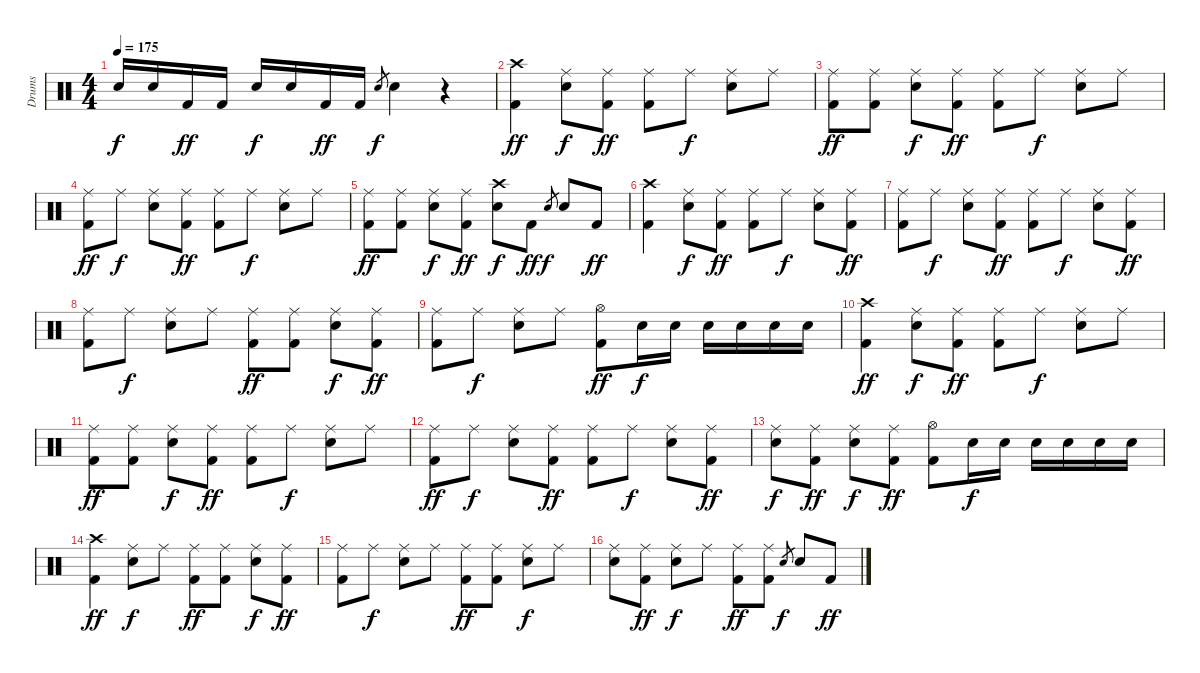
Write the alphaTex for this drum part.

\track ("Drums" "Drums") {instrument percussion}
\staff {score}
\articulation defaults
\ts (4 4)
\tempo 175
\clef neutral
\ks c "Electric Snare (hit)".16{dy f} "Electric Snare (hit)".16 "Kick (hit) 2".16{dy ff} "Kick (hit) 2".16 "Electric Snare (hit)".16{dy f} "Electric Snare (hit)".16 "Kick (hit) 2".16{dy ff} "Kick (hit) 2".16 "Electric Snare (hit)".8{gr dy f} "Electric Snare (hit)".4
r.4 |
("Crash high (hit)" "Kick (hit) 2").4{dy ff} ("Ride (middle)" "Electric Snare (hit)").8{dy f} ("Ride (middle)" "Kick (hit) 2").8{dy ff} ("Ride (middle)" "Kick (hit) 2").8 "Ride (middle)".8{dy f} ("Ride (middle)" "Electric Snare (hit)").8 "Ride (middle)".8 |
("Ride (middle)" "Kick (hit) 2").8{dy ff} ("Ride (middle)" "Kick (hit) 2").8 ("Ride (middle)" "Electric Snare (hit)").8{dy f} ("Ride (middle)" "Kick (hit) 2").8{dy ff} ("Ride (middle)" "Kick (hit) 2").8 "Ride (middle)".8{dy f} ("Ride (middle)" "Electric Snare (hit)").8 "Ride (middle)".8 |
("Ride (middle)" "Kick (hit) 2").8{dy ff} "Ride (middle)".8{dy f} ("Ride (middle)" "Electric Snare (hit)").8 ("Ride (middle)" "Kick (hit) 2").8{dy ff} ("Ride (middle)" "Kick (hit) 2").8 "Ride (middle)".8{dy f} ("Ride (middle)" "Electric Snare (hit)").8 "Ride (middle)".8 |
("Ride (middle)" "Kick (hit) 2").8{dy ff} ("Ride (middle)" "Kick (hit) 2").8 ("Ride (middle)" "Electric Snare (hit)").8{dy f} ("Ride (middle)" "Kick (hit) 2").8{dy ff} ("Crash high (hit)" "Electric Snare (hit)").8{dy f} "Kick (hit) 2".8{dy ff} "Electric Snare (hit)".8{gr dy f} "Electric Snare (hit)".8 "Kick (hit) 2".8{dy ff} |
("Crash high (hit)" "Kick (hit) 2").4 ("Ride (middle)" "Electric Snare (hit)").8{dy f} ("Ride (middle)" "Kick (hit) 2").8{dy ff} ("Ride (middle)" "Kick (hit) 2").8 "Ride (middle)".8{dy f} ("Ride (middle)" "Electric Snare (hit)").8 ("Ride (middle)" "Kick (hit) 2").8{dy ff} |
("Ride (middle)" "Kick (hit) 2").8 "Ride (middle)".8{dy f} ("Ride (middle)" "Electric Snare (hit)").8 ("Ride (middle)" "Kick (hit) 2").8{dy ff} ("Ride (middle)" "Kick (hit) 2").8 "Ride (middle)".8{dy f} ("Ride (middle)" "Electric Snare (hit)").8 ("Ride (middle)" "Kick (hit) 2").8{dy ff} |
("Ride (middle)" "Kick (hit) 2").8 "Ride (middle)".8{dy f} ("Ride (middle)" "Electric Snare (hit)").8 "Ride (middle)".8 ("Ride (middle)" "Kick (hit) 2").8{dy ff} ("Ride (middle)" "Kick (hit) 2").8 ("Ride (middle)" "Electric Snare (hit)").8{dy f} ("Ride (middle)" "Kick (hit) 2").8{dy ff} |
("Ride (middle)" "Kick (hit) 2").8 "Ride (middle)".8{dy f} ("Ride (middle)" "Electric Snare (hit)").8 "Ride (middle)".8 ("Hi-Hat (open)" "Kick (hit) 2").8{dy ff} "Electric Snare (hit)".16{dy f} "Electric Snare (hit)".16 "Electric Snare (hit)".16 "Electric Snare (hit)".16 "Electric Snare (hit)".16 "Electric Snare (hit)".16 |
("Crash high (hit)" "Kick (hit) 2").4{dy ff} ("Ride (middle)" "Electric Snare (hit)").8{dy f} ("Ride (middle)" "Kick (hit) 2").8{dy ff} ("Ride (middle)" "Kick (hit) 2").8 "Ride (middle)".8{dy f} ("Ride (middle)" "Electric Snare (hit)").8 "Ride (middle)".8 |
("Ride (middle)" "Kick (hit) 2").8{dy ff} ("Ride (middle)" "Kick (hit) 2").8 ("Ride (middle)" "Electric Snare (hit)").8{dy f} ("Ride (middle)" "Kick (hit) 2").8{dy ff} ("Ride (middle)" "Kick (hit) 2").8 "Ride (middle)".8{dy f} ("Ride (middle)" "Electric Snare (hit)").8 "Ride (middle)".8 |
("Ride (middle)" "Kick (hit) 2").8{dy ff} "Ride (middle)".8{dy f} ("Ride (middle)" "Electric Snare (hit)").8 ("Ride (middle)" "Kick (hit) 2").8{dy ff} ("Ride (middle)" "Kick (hit) 2").8 "Ride (middle)".8{dy f} ("Ride (middle)" "Electric Snare (hit)").8 ("Ride (middle)" "Kick (hit) 2").8{dy ff} |
("Ride (middle)" "Electric Snare (hit)").8{dy f} ("Ride (middle)" "Kick (hit) 2").8{dy ff} ("Ride (middle)" "Electric Snare (hit)").8{dy f} ("Ride (middle)" "Kick (hit) 2").8{dy ff} ("Hi-Hat (open)" "Kick (hit) 2").8 "Electric Snare (hit)".16{dy f} "Electric Snare (hit)".16 "Electric Snare (hit)".16 "Electric Snare (hit)".16 "Electric Snare (hit)".16 "Electric Snare (hit)".16 |
("Crash high (hit)" "Kick (hit) 2").4{dy ff} ("Ride (middle)" "Electric Snare (hit)").8{dy f} "Ride (middle)".8 ("Ride (middle)" "Kick (hit) 2").8{dy ff} ("Ride (middle)" "Kick (hit) 2").8 ("Ride (middle)" "Electric Snare (hit)").8{dy f} ("Ride (middle)" "Kick (hit) 2").8{dy ff} |
("Ride (middle)" "Kick (hit) 2").8 "Ride (middle)".8{dy f} ("Ride (middle)" "Electric Snare (hit)").8 "Ride (middle)".8 ("Ride (middle)" "Kick (hit) 2").8{dy ff} ("Ride (middle)" "Kick (hit) 2").8 ("Ride (middle)" "Electric Snare (hit)").8{dy f} "Ride (middle)".8 |
("Ride (middle)" "Electric Snare (hit)").8 ("Ride (middle)" "Kick (hit) 2").8{dy ff} ("Ride (middle)" "Electric Snare (hit)").8{dy f} "Ride (middle)".8 ("Ride (middle)" "Kick (hit) 2").8{dy ff} ("Ride (middle)" "Kick (hit) 2").8 "Electric Snare (hit)".8{gr dy f} "Electric Snare (hit)".8 "Kick (hit) 2".8{dy ff}
